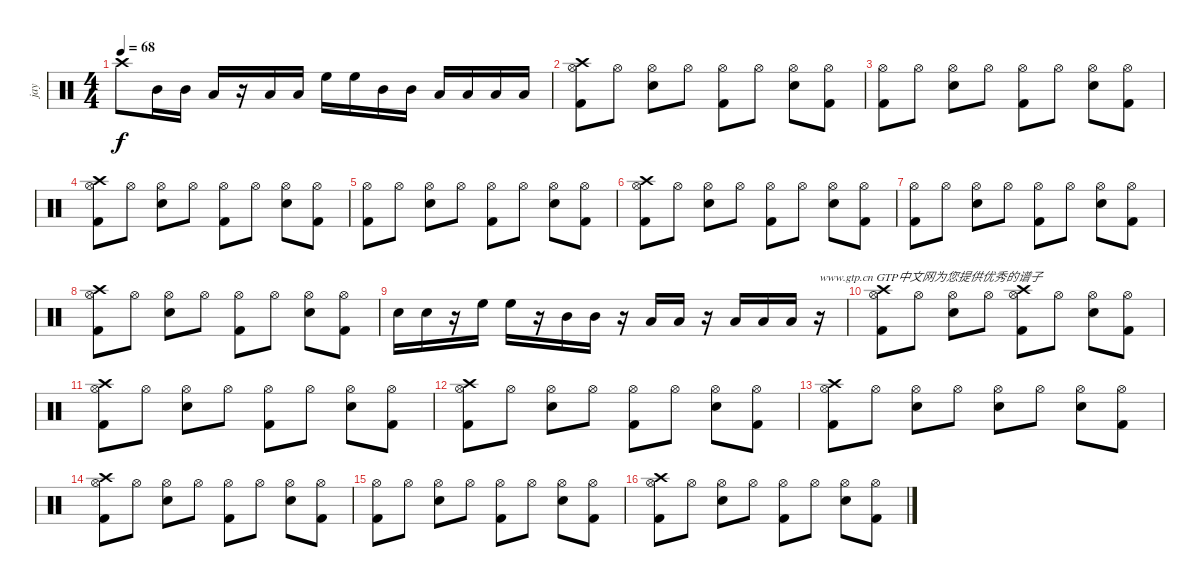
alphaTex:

\track ("jay" "jay") {instrument percussion}
\staff {score}
\articulation defaults
\ts (4 4)
\tempo 68
\clef neutral
\ks c "Crash high (hit)".8{dy f} "Mid Tom (hit)".16 "Mid Tom (hit)".16 "Low Tom (hit)".16
r.16 "Low Floor Tom (hit)".16 "Low Floor Tom (hit)".16 "High Floor Tom (hit)".16 "High Floor Tom (hit)".16 "Mid Tom (hit)".16 "Mid Tom (hit)".16 "Low Tom (hit)".16 "Low Tom (hit)".16 "Low Floor Tom (hit)".16 "Low Floor Tom (hit)".16 |
("Crash high (hit)" "Kick (hit) 2" "Hi-Hat (open)").8 "Hi-Hat (open)".8 ("Snare (hit) 2" "Hi-Hat (open)").8 "Hi-Hat (open)".8 ("Kick (hit) 2" "Hi-Hat (open)").8 "Hi-Hat (open)".8 ("Snare (hit) 2" "Hi-Hat (open)").8 ("Kick (hit) 2" "Hi-Hat (open)").8 |
("Kick (hit) 2" "Hi-Hat (open)").8 "Hi-Hat (open)".8 ("Snare (hit) 2" "Hi-Hat (open)").8 "Hi-Hat (open)".8 ("Kick (hit) 2" "Hi-Hat (open)").8 "Hi-Hat (open)".8 ("Snare (hit) 2" "Hi-Hat (open)").8 ("Kick (hit) 2" "Hi-Hat (open)").8 |
("Crash high (hit)" "Kick (hit) 2" "Hi-Hat (open)").8 "Hi-Hat (open)".8 ("Snare (hit) 2" "Hi-Hat (open)").8 "Hi-Hat (open)".8 ("Kick (hit) 2" "Hi-Hat (open)").8 "Hi-Hat (open)".8 ("Snare (hit) 2" "Hi-Hat (open)").8 ("Kick (hit) 2" "Hi-Hat (open)").8 |
("Kick (hit) 2" "Hi-Hat (open)").8 "Hi-Hat (open)".8 ("Snare (hit) 2" "Hi-Hat (open)").8 "Hi-Hat (open)".8 ("Kick (hit) 2" "Hi-Hat (open)").8 "Hi-Hat (open)".8 ("Snare (hit) 2" "Hi-Hat (open)").8 ("Kick (hit) 2" "Hi-Hat (open)").8 |
("Crash high (hit)" "Kick (hit) 2" "Hi-Hat (open)").8 "Hi-Hat (open)".8 ("Snare (hit) 2" "Hi-Hat (open)").8 "Hi-Hat (open)".8 ("Kick (hit) 2" "Hi-Hat (open)").8 "Hi-Hat (open)".8 ("Snare (hit) 2" "Hi-Hat (open)").8 ("Kick (hit) 2" "Hi-Hat (open)").8 |
("Kick (hit) 2" "Hi-Hat (open)").8 "Hi-Hat (open)".8 ("Snare (hit) 2" "Hi-Hat (open)").8 "Hi-Hat (open)".8 ("Kick (hit) 2" "Hi-Hat (open)").8 "Hi-Hat (open)".8 ("Snare (hit) 2" "Hi-Hat (open)").8 ("Kick (hit) 2" "Hi-Hat (open)").8 |
("Crash high (hit)" "Kick (hit) 2" "Hi-Hat (open)").8 "Hi-Hat (open)".8 ("Snare (hit) 2" "Hi-Hat (open)").8 "Hi-Hat (open)".8 ("Kick (hit) 2" "Hi-Hat (open)").8 "Hi-Hat (open)".8 ("Snare (hit) 2" "Hi-Hat (open)").8 ("Kick (hit) 2" "Hi-Hat (open)").8 |
"Snare (hit) 2".16 "Snare (hit) 2".16 r.16 "High Floor Tom (hit)".16 "High Floor Tom (hit)".16 r.16 "Mid Tom (hit)".16 "Mid Tom (hit)".16 r.16 "Low Tom (hit)".16 "Low Tom (hit)".16 r.16 "Low Floor Tom (hit)".16 "Low Floor Tom (hit)".16 "Low Floor Tom (hit)".16 r.16{txt "www.gtp.cn GTP中文网为您提供优秀的谱子"} |
("Crash high (hit)" "Kick (hit) 2" "Hi-Hat (open)").8 "Hi-Hat (open)".8 ("Snare (hit) 2" "Hi-Hat (open)").8 "Hi-Hat (open)".8 ("Crash high (hit)" "Kick (hit) 2" "Hi-Hat (open)").8 "Hi-Hat (open)".8 ("Snare (hit) 2" "Hi-Hat (open)").8 ("Kick (hit) 2" "Hi-Hat (open)").8 |
("Crash high (hit)" "Kick (hit) 2" "Hi-Hat (open)").8 "Hi-Hat (open)".8 ("Snare (hit) 2" "Hi-Hat (open)").8 "Hi-Hat (open)".8 ("Kick (hit) 2" "Hi-Hat (open)").8 "Hi-Hat (open)".8 ("Snare (hit) 2" "Hi-Hat (open)").8 ("Kick (hit) 2" "Hi-Hat (open)").8 |
("Crash high (hit)" "Kick (hit) 2" "Hi-Hat (open)").8 "Hi-Hat (open)".8 ("Snare (hit) 2" "Hi-Hat (open)").8 "Hi-Hat (open)".8 ("Kick (hit) 2" "Hi-Hat (open)").8 "Hi-Hat (open)".8 ("Snare (hit) 2" "Hi-Hat (open)").8 ("Kick (hit) 2" "Hi-Hat (open)").8 |
("Crash high (hit)" "Kick (hit) 2" "Hi-Hat (open)").8 "Hi-Hat (open)".8 ("Snare (hit) 2" "Hi-Hat (open)").8 "Hi-Hat (open)".8 ("Snare (hit) 2" "Hi-Hat (open)").8 "Hi-Hat (open)".8 ("Snare (hit) 2" "Hi-Hat (open)").8 ("Kick (hit) 2" "Hi-Hat (open)").8 |
("Crash high (hit)" "Kick (hit) 2" "Hi-Hat (open)").8 "Hi-Hat (open)".8 ("Snare (hit) 2" "Hi-Hat (open)").8 "Hi-Hat (open)".8 ("Kick (hit) 2" "Hi-Hat (open)").8 "Hi-Hat (open)".8 ("Snare (hit) 2" "Hi-Hat (open)").8 ("Kick (hit) 2" "Hi-Hat (open)").8 |
("Kick (hit) 2" "Hi-Hat (open)").8 "Hi-Hat (open)".8 ("Snare (hit) 2" "Hi-Hat (open)").8 "Hi-Hat (open)".8 ("Kick (hit) 2" "Hi-Hat (open)").8 "Hi-Hat (open)".8 ("Snare (hit) 2" "Hi-Hat (open)").8 ("Kick (hit) 2" "Hi-Hat (open)").8 |
("Crash high (hit)" "Kick (hit) 2" "Hi-Hat (open)").8 "Hi-Hat (open)".8 ("Snare (hit) 2" "Hi-Hat (open)").8 "Hi-Hat (open)".8 ("Kick (hit) 2" "Hi-Hat (open)").8 "Hi-Hat (open)".8 ("Snare (hit) 2" "Hi-Hat (open)").8 ("Kick (hit) 2" "Hi-Hat (open)").8
